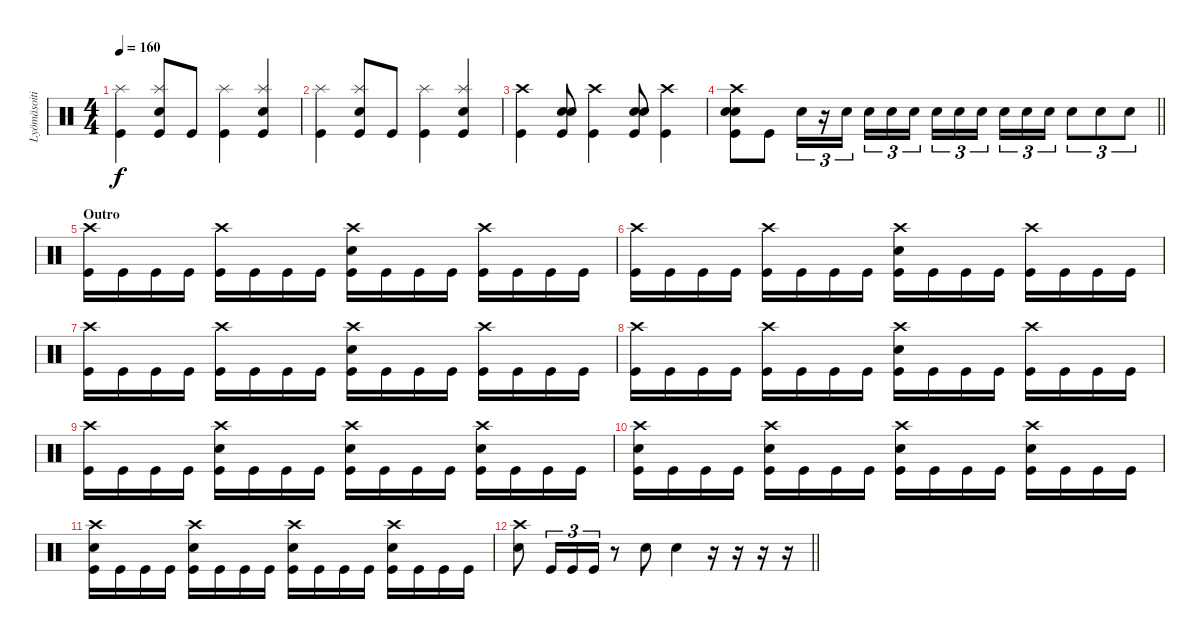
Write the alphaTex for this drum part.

\track ("Lyömäsoitin" "Lyömäsoiti") {instrument percussion}
\staff {score}
\articulation defaults
\ts (4 4)
\tempo 160
\clef neutral
\ks c
("Kick (hit)" "Splash (hit)").4{dy f} ("Kick (hit)" "Splash (hit)" "Electric Snare (hit)").8 "Kick (hit)".8 ("Kick (hit)" "Splash (hit)").4 ("Kick (hit)" "Splash (hit)" "Electric Snare (hit)").4 |
("Kick (hit)" "Splash (hit)").4 ("Kick (hit)" "Splash (hit)" "Electric Snare (hit)").8 "Kick (hit)".8 ("Kick (hit)" "Splash (hit)").4 ("Kick (hit)" "Splash (hit)" "Electric Snare (hit)").4 |
("Kick (hit)" "Crash high (hit)").4 ("Kick (hit)" "Electric Snare (hit)" "Electric Snare (hit)").8 ("Kick (hit)" "Crash high (hit)").4 ("Kick (hit)" "Electric Snare (hit)" "Electric Snare (hit)").8 ("Kick (hit)" "Crash high (hit)").4 |
\barLineRight lightlight
("Kick (hit)" "Crash high (hit)" "Electric Snare (hit)" "Electric Snare (hit)").8 "Kick (hit)".8 "Electric Snare (hit)".16{tu (3 2)} r.16{tu (3 2)} "Electric Snare (hit)".16{tu (3 2) beam splitsecondary} "Electric Snare (hit)".16{tu (3 2)} "Electric Snare (hit)".16{tu (3 2)} "Electric Snare (hit)".16{tu (3 2)} "Electric Snare (hit)".16{tu (3 2)} "Electric Snare (hit)".16{tu (3 2)} "Electric Snare (hit)".16{tu (3 2) beam splitsecondary} "Electric Snare (hit)".16{tu (3 2)} "Electric Snare (hit)".16{tu (3 2)} "Electric Snare (hit)".16{tu (3 2)} "Electric Snare (hit)".8{tu (3 2)} "Electric Snare (hit)".8{tu (3 2)} "Electric Snare (hit)".8{tu (3 2)} |
\section ("" "Outro")
("Kick (hit)" "Crash high (hit)").16 "Kick (hit)".16 "Kick (hit)".16 "Kick (hit)".16 ("Kick (hit)" "Crash high (hit)").16 "Kick (hit)".16 "Kick (hit)".16 "Kick (hit)".16 ("Kick (hit)" "Crash high (hit)" "Electric Snare (hit)").16 "Kick (hit)".16 "Kick (hit)".16 "Kick (hit)".16 ("Kick (hit)" "Crash high (hit)").16 "Kick (hit)".16 "Kick (hit)".16 "Kick (hit)".16 |
("Kick (hit)" "Crash high (hit)").16 "Kick (hit)".16 "Kick (hit)".16 "Kick (hit)".16 ("Kick (hit)" "Crash high (hit)").16 "Kick (hit)".16 "Kick (hit)".16 "Kick (hit)".16 ("Kick (hit)" "Crash high (hit)" "Electric Snare (hit)").16 "Kick (hit)".16 "Kick (hit)".16 "Kick (hit)".16 ("Kick (hit)" "Crash high (hit)").16 "Kick (hit)".16 "Kick (hit)".16 "Kick (hit)".16 |
("Kick (hit)" "Crash high (hit)").16 "Kick (hit)".16 "Kick (hit)".16 "Kick (hit)".16 ("Kick (hit)" "Crash high (hit)").16 "Kick (hit)".16 "Kick (hit)".16 "Kick (hit)".16 ("Kick (hit)" "Crash high (hit)" "Electric Snare (hit)").16 "Kick (hit)".16 "Kick (hit)".16 "Kick (hit)".16 ("Kick (hit)" "Crash high (hit)").16 "Kick (hit)".16 "Kick (hit)".16 "Kick (hit)".16 |
("Kick (hit)" "Crash high (hit)").16 "Kick (hit)".16 "Kick (hit)".16 "Kick (hit)".16 ("Kick (hit)" "Crash high (hit)").16 "Kick (hit)".16 "Kick (hit)".16 "Kick (hit)".16 ("Kick (hit)" "Crash high (hit)" "Electric Snare (hit)").16 "Kick (hit)".16 "Kick (hit)".16 "Kick (hit)".16 ("Kick (hit)" "Crash high (hit)").16 "Kick (hit)".16 "Kick (hit)".16 "Kick (hit)".16 |
("Kick (hit)" "Crash high (hit)").16 "Kick (hit)".16 "Kick (hit)".16 "Kick (hit)".16 ("Kick (hit)" "Crash high (hit)" "Electric Snare (hit)").16 "Kick (hit)".16 "Kick (hit)".16 "Kick (hit)".16 ("Kick (hit)" "Crash high (hit)" "Electric Snare (hit)").16 "Kick (hit)".16 "Kick (hit)".16 "Kick (hit)".16 ("Kick (hit)" "Crash high (hit)" "Electric Snare (hit)").16 "Kick (hit)".16 "Kick (hit)".16 "Kick (hit)".16 |
("Kick (hit)" "Crash high (hit)" "Electric Snare (hit)").16 "Kick (hit)".16 "Kick (hit)".16 "Kick (hit)".16 ("Kick (hit)" "Crash high (hit)" "Electric Snare (hit)").16 "Kick (hit)".16 "Kick (hit)".16 "Kick (hit)".16 ("Kick (hit)" "Crash high (hit)" "Electric Snare (hit)").16 "Kick (hit)".16 "Kick (hit)".16 "Kick (hit)".16 ("Kick (hit)" "Crash high (hit)" "Electric Snare (hit)").16 "Kick (hit)".16 "Kick (hit)".16 "Kick (hit)".16 |
("Kick (hit)" "Crash high (hit)" "Electric Snare (hit)").16 "Kick (hit)".16 "Kick (hit)".16 "Kick (hit)".16 ("Kick (hit)" "Crash high (hit)" "Electric Snare (hit)").16 "Kick (hit)".16 "Kick (hit)".16 "Kick (hit)".16 ("Kick (hit)" "Crash high (hit)" "Electric Snare (hit)").16 "Kick (hit)".16 "Kick (hit)".16 "Kick (hit)".16 ("Kick (hit)" "Crash high (hit)" "Electric Snare (hit)").16 "Kick (hit)".16 "Kick (hit)".16 "Kick (hit)".16 |
\barLineRight lightlight
("Electric Snare (hit)" "Crash high (hit)").8 "Kick (hit)".16{tu (3 2)} "Kick (hit)".16{tu (3 2)} "Kick (hit)".16{tu (3 2)} r.8 "Electric Snare (hit)".8 "Electric Snare (hit)".4 r.16 r.16 r.16 r.16
